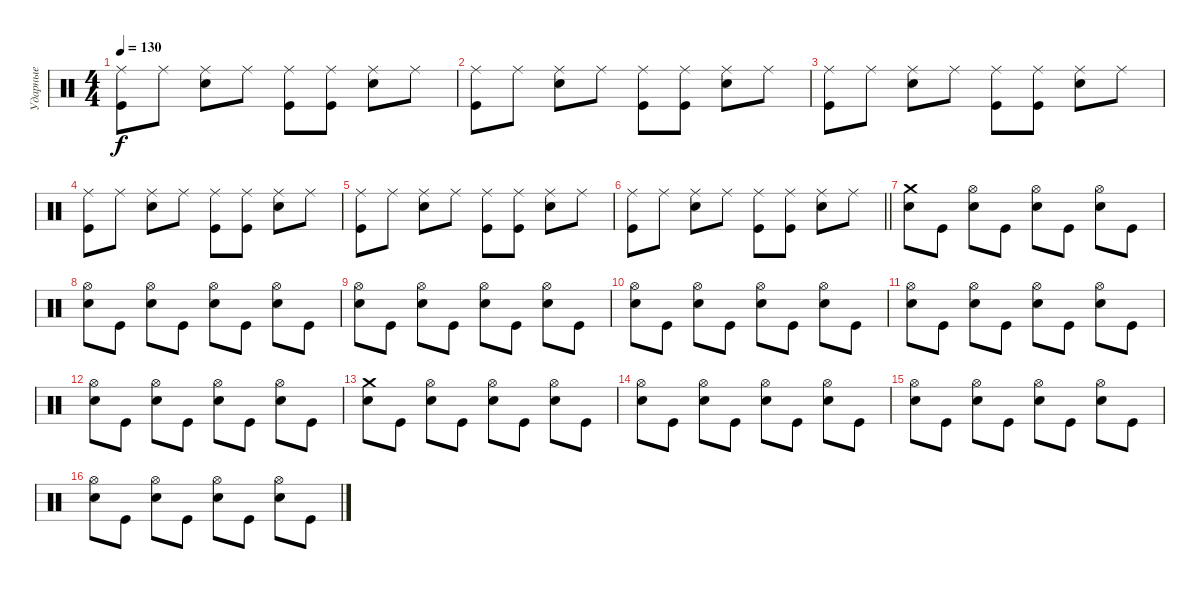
\track ("Ударные" "Ударные") {instrument percussion}
\staff {score}
\articulation defaults
\ts (4 4)
\tempo 130
\clef neutral
\ks c
("Ride (middle)" "Kick (hit)").8{dy f} "Ride (middle)".8 ("Ride (middle)" "Electric Snare (hit)").8 "Ride (middle)".8 ("Ride (middle)" "Kick (hit)").8 ("Ride (middle)" "Kick (hit)").8 ("Ride (middle)" "Electric Snare (hit)").8 "Ride (middle)".8 |
("Ride (middle)" "Kick (hit)").8 "Ride (middle)".8 ("Ride (middle)" "Electric Snare (hit)").8 "Ride (middle)".8 ("Ride (middle)" "Kick (hit)").8 ("Ride (middle)" "Kick (hit)").8 ("Ride (middle)" "Electric Snare (hit)").8 "Ride (middle)".8 |
("Ride (middle)" "Kick (hit)").8 "Ride (middle)".8 ("Ride (middle)" "Electric Snare (hit)").8 "Ride (middle)".8 ("Ride (middle)" "Kick (hit)").8 ("Ride (middle)" "Kick (hit)").8 ("Ride (middle)" "Electric Snare (hit)").8 "Ride (middle)".8 |
("Ride (middle)" "Kick (hit)").8 "Ride (middle)".8 ("Ride (middle)" "Electric Snare (hit)").8 "Ride (middle)".8 ("Ride (middle)" "Kick (hit)").8 ("Ride (middle)" "Kick (hit)").8 ("Ride (middle)" "Electric Snare (hit)").8 "Ride (middle)".8 |
("Ride (middle)" "Kick (hit)").8 "Ride (middle)".8 ("Ride (middle)" "Electric Snare (hit)").8 "Ride (middle)".8 ("Ride (middle)" "Kick (hit)").8 ("Ride (middle)" "Kick (hit)").8 ("Ride (middle)" "Electric Snare (hit)").8 "Ride (middle)".8 |
\barLineRight lightlight
("Ride (middle)" "Kick (hit)").8 "Ride (middle)".8 ("Ride (middle)" "Electric Snare (hit)").8 "Ride (middle)".8 ("Ride (middle)" "Kick (hit)").8 ("Ride (middle)" "Kick (hit)").8 ("Ride (middle)" "Electric Snare (hit)").8 "Ride (middle)".8 |
\section ("" " ")
("Crash medium (hit)" "Electric Snare (hit)").8 "Kick (hit)".8 ("Hi-Hat (open)" "Electric Snare (hit)").8 "Kick (hit)".8 ("Hi-Hat (open)" "Electric Snare (hit)").8 "Kick (hit)".8 ("Hi-Hat (open)" "Electric Snare (hit)").8 "Kick (hit)".8 |
("Hi-Hat (open)" "Electric Snare (hit)").8 "Kick (hit)".8 ("Hi-Hat (open)" "Electric Snare (hit)").8 "Kick (hit)".8 ("Hi-Hat (open)" "Electric Snare (hit)").8 "Kick (hit)".8 ("Hi-Hat (open)" "Electric Snare (hit)").8 "Kick (hit)".8 |
("Hi-Hat (open)" "Electric Snare (hit)").8 "Kick (hit)".8 ("Hi-Hat (open)" "Electric Snare (hit)").8 "Kick (hit)".8 ("Hi-Hat (open)" "Electric Snare (hit)").8 "Kick (hit)".8 ("Hi-Hat (open)" "Electric Snare (hit)").8 "Kick (hit)".8 |
("Hi-Hat (open)" "Electric Snare (hit)").8 "Kick (hit)".8 ("Hi-Hat (open)" "Electric Snare (hit)").8 "Kick (hit)".8 ("Hi-Hat (open)" "Electric Snare (hit)").8 "Kick (hit)".8 ("Hi-Hat (open)" "Electric Snare (hit)").8 "Kick (hit)".8 |
("Hi-Hat (open)" "Electric Snare (hit)").8 "Kick (hit)".8 ("Hi-Hat (open)" "Electric Snare (hit)").8 "Kick (hit)".8 ("Hi-Hat (open)" "Electric Snare (hit)").8 "Kick (hit)".8 ("Hi-Hat (open)" "Electric Snare (hit)").8 "Kick (hit)".8 |
("Hi-Hat (open)" "Electric Snare (hit)").8 "Kick (hit)".8 ("Hi-Hat (open)" "Electric Snare (hit)").8 "Kick (hit)".8 ("Hi-Hat (open)" "Electric Snare (hit)").8 "Kick (hit)".8 ("Hi-Hat (open)" "Electric Snare (hit)").8 "Kick (hit)".8 |
("Crash medium (hit)" "Electric Snare (hit)").8 "Kick (hit)".8 ("Hi-Hat (open)" "Electric Snare (hit)").8 "Kick (hit)".8 ("Hi-Hat (open)" "Electric Snare (hit)").8 "Kick (hit)".8 ("Hi-Hat (open)" "Electric Snare (hit)").8 "Kick (hit)".8 |
("Hi-Hat (open)" "Electric Snare (hit)").8 "Kick (hit)".8 ("Hi-Hat (open)" "Electric Snare (hit)").8 "Kick (hit)".8 ("Hi-Hat (open)" "Electric Snare (hit)").8 "Kick (hit)".8 ("Hi-Hat (open)" "Electric Snare (hit)").8 "Kick (hit)".8 |
("Hi-Hat (open)" "Electric Snare (hit)").8 "Kick (hit)".8 ("Hi-Hat (open)" "Electric Snare (hit)").8 "Kick (hit)".8 ("Hi-Hat (open)" "Electric Snare (hit)").8 "Kick (hit)".8 ("Hi-Hat (open)" "Electric Snare (hit)").8 "Kick (hit)".8 |
("Hi-Hat (open)" "Electric Snare (hit)").8 "Kick (hit)".8 ("Hi-Hat (open)" "Electric Snare (hit)").8 "Kick (hit)".8 ("Hi-Hat (open)" "Electric Snare (hit)").8 "Kick (hit)".8 ("Hi-Hat (open)" "Electric Snare (hit)").8 "Kick (hit)".8
